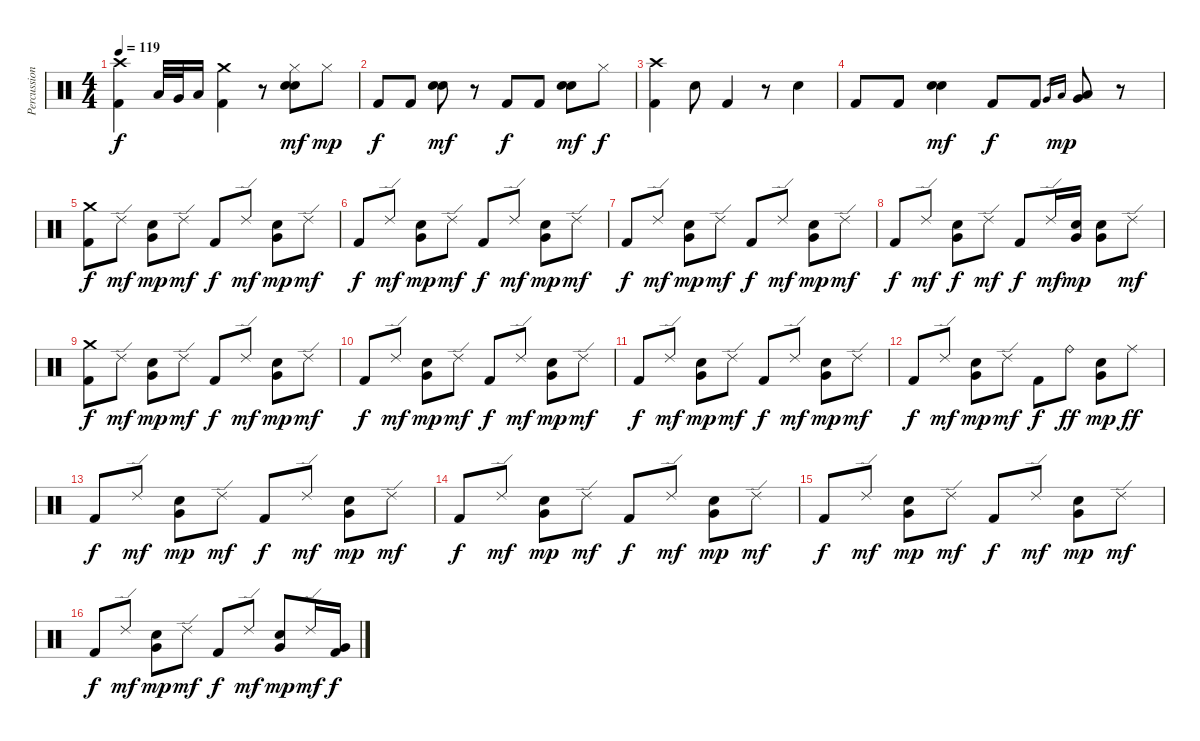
\track ("Percussion" "Percussion") {instrument percussion}
\staff {score}
\articulation defaults
\ts (4 4)
\tempo 119
\clef neutral
\ks c
("Crash high (hit)" "Kick (hit) 2").4{dy f} "Low Tom (hit)".32 "Very Low Tom (hit)".32 "Low Floor Tom (hit)".16 ("Crash medium (hit)" "Kick (hit) 2").4 r.8 ("Hi-Hat (closed)" "Electric Snare (hit)" "Snare (hit) 2").8{dy mf} "Hi-Hat (closed)".8{dy mp} |
"Kick (hit) 2".8{dy f} "Kick (hit) 2".8 ("Electric Snare (hit)" "Snare (hit) 2").8{dy mf} r.8 "Kick (hit) 2".8{dy f} "Kick (hit) 2".8 ("Electric Snare (hit)" "Snare (hit) 2").8{dy mf} "Hi-Hat (closed)".8{dy f} |
("Crash high (hit)" "Kick (hit) 2").4 "Snare (hit) 2".8 "Kick (hit) 2".4 r.8 "Snare (hit) 2".4 |
"Kick (hit) 2".8 "Kick (hit) 2".8 ("Electric Snare (hit)" "Snare (hit) 2").4{dy mf} "Kick (hit) 2".8{dy f} "Kick (hit) 2".8 "Very Low Tom (hit)".16{gr} "Low Floor Tom (hit)".16{gr dy mp} ("Very Low Tom (hit)" "Low Floor Tom (hit)").8 r.8 |
("Crash medium (hit)" "Kick (hit) 2").8{dy f} "Ride (edge) 2".8{dy mf} ("Very Low Tom (hit)" "Snare (hit) 2").8{dy mp} "Ride (edge) 2".8{dy mf} "Kick (hit) 2".8{dy f} "Ride (edge) 2".8{dy mf} ("Very Low Tom (hit)" "Snare (hit) 2").8{dy mp} "Ride (edge) 2".8{dy mf} |
"Kick (hit) 2".8{dy f} "Ride (edge) 2".8{dy mf} ("Very Low Tom (hit)" "Snare (hit) 2").8{dy mp} "Ride (edge) 2".8{dy mf} "Kick (hit) 2".8{dy f} "Ride (edge) 2".8{dy mf} ("Very Low Tom (hit)" "Snare (hit) 2").8{dy mp} "Ride (edge) 2".8{dy mf} |
"Kick (hit) 2".8{dy f} "Ride (edge) 2".8{dy mf} ("Very Low Tom (hit)" "Snare (hit) 2").8{dy mp} "Ride (edge) 2".8{dy mf} "Kick (hit) 2".8{dy f} "Ride (edge) 2".8{dy mf} ("Very Low Tom (hit)" "Snare (hit) 2").8{dy mp} "Ride (edge) 2".8{dy mf} |
"Kick (hit) 2".8{dy f} "Ride (edge) 2".8{dy mf} ("Very Low Tom (hit)" "Snare (hit) 2").8{dy f} "Ride (edge) 2".8{dy mf} "Kick (hit) 2".8{dy f} "Ride (edge) 2".16{dy mf} ("Very Low Tom (hit)" "Snare (hit) 2").16{dy mp} ("Very Low Tom (hit)" "Snare (hit) 2").8 "Ride (edge) 2".8{dy mf} |
("Crash medium (hit)" "Kick (hit) 2").8{dy f} "Ride (edge) 2".8{dy mf} ("Very Low Tom (hit)" "Snare (hit) 2").8{dy mp} "Ride (edge) 2".8{dy mf} "Kick (hit) 2".8{dy f} "Ride (edge) 2".8{dy mf} ("Very Low Tom (hit)" "Snare (hit) 2").8{dy mp} "Ride (edge) 2".8{dy mf} |
"Kick (hit) 2".8{dy f} "Ride (edge) 2".8{dy mf} ("Very Low Tom (hit)" "Snare (hit) 2").8{dy mp} "Ride (edge) 2".8{dy mf} "Kick (hit) 2".8{dy f} "Ride (edge) 2".8{dy mf} ("Very Low Tom (hit)" "Snare (hit) 2").8{dy mp} "Ride (edge) 2".8{dy mf} |
"Kick (hit) 2".8{dy f} "Ride (edge) 2".8{dy mf} ("Very Low Tom (hit)" "Snare (hit) 2").8{dy mp} "Ride (edge) 2".8{dy mf} "Kick (hit) 2".8{dy f} "Ride (edge) 2".8{dy mf} ("Very Low Tom (hit)" "Snare (hit) 2").8{dy mp} "Ride (edge) 2".8{dy mf} |
"Kick (hit) 2".8{dy f} "Ride (edge) 2".8{dy mf} ("Very Low Tom (hit)" "Snare (hit) 2").8{dy mp} "Ride (edge) 2".8{dy mf} "Kick (hit) 2".8{dy f} "Ride (bell)".8{dy ff} ("Very Low Tom (hit)" "Snare (hit) 2").8{dy mp} "Ride (middle)".8{dy ff} |
"Kick (hit) 2".8{dy f} "Ride (edge) 2".8{dy mf} ("Very Low Tom (hit)" "Snare (hit) 2").8{dy mp} "Ride (edge) 2".8{dy mf} "Kick (hit) 2".8{dy f} "Ride (edge) 2".8{dy mf} ("Very Low Tom (hit)" "Snare (hit) 2").8{dy mp} "Ride (edge) 2".8{dy mf} |
"Kick (hit) 2".8{dy f} "Ride (edge) 2".8{dy mf} ("Very Low Tom (hit)" "Snare (hit) 2").8{dy mp} "Ride (edge) 2".8{dy mf} "Kick (hit) 2".8{dy f} "Ride (edge) 2".8{dy mf} ("Very Low Tom (hit)" "Snare (hit) 2").8{dy mp} "Ride (edge) 2".8{dy mf} |
"Kick (hit) 2".8{dy f} "Ride (edge) 2".8{dy mf} ("Very Low Tom (hit)" "Snare (hit) 2").8{dy mp} "Ride (edge) 2".8{dy mf} "Kick (hit) 2".8{dy f} "Ride (edge) 2".8{dy mf} ("Very Low Tom (hit)" "Snare (hit) 2").8{dy mp} "Ride (edge) 2".8{dy mf} |
"Kick (hit) 2".8{dy f} "Ride (edge) 2".8{dy mf} ("Very Low Tom (hit)" "Snare (hit) 2").8{dy mp} "Ride (edge) 2".8{dy mf} "Kick (hit) 2".8{dy f} "Ride (edge) 2".8{dy mf} ("Very Low Tom (hit)" "Snare (hit) 2").8{dy mp} "Ride (edge) 2".16{dy mf} ("Very Low Tom (hit)" "Kick (hit) 2").16{dy f}
